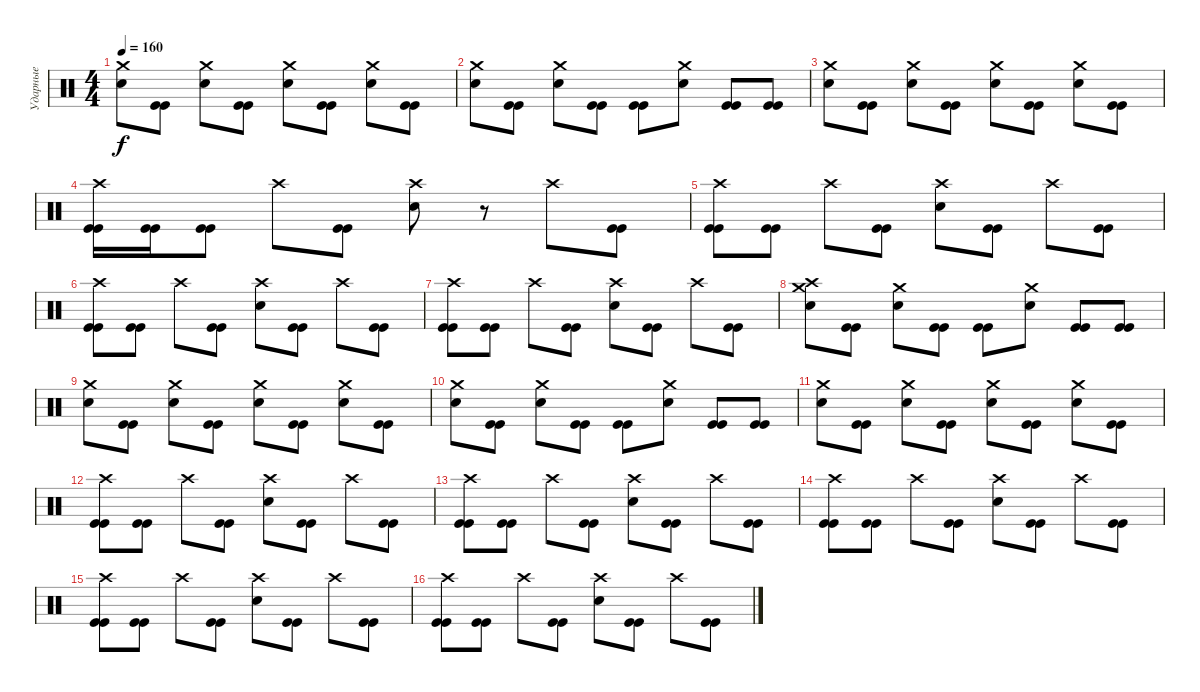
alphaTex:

\track ("Ударные" "Ударные") {instrument percussion}
\staff {score}
\articulation defaults
\ts (4 4)
\tempo 160
\clef neutral
\ks c
("Crash medium (hit)" "Electric Snare (hit)").8{dy f} ("Kick (hit)" "Kick (hit)").8 ("Crash medium (hit)" "Electric Snare (hit)").8 ("Kick (hit)" "Kick (hit)").8 ("Crash medium (hit)" "Electric Snare (hit)").8 ("Kick (hit)" "Kick (hit)").8 ("Crash medium (hit)" "Electric Snare (hit)").8 ("Kick (hit)" "Kick (hit)").8 |
("Crash medium (hit)" "Electric Snare (hit)").8 ("Kick (hit)" "Kick (hit)").8 ("Crash medium (hit)" "Electric Snare (hit)").8 ("Kick (hit)" "Kick (hit)").8 ("Kick (hit)" "Kick (hit)").8 ("Crash medium (hit)" "Electric Snare (hit)").8 ("Kick (hit)" "Kick (hit)").8 ("Kick (hit)" "Kick (hit)").8 |
("Crash medium (hit)" "Electric Snare (hit)").8 ("Kick (hit)" "Kick (hit)").8 ("Crash medium (hit)" "Electric Snare (hit)").8 ("Kick (hit)" "Kick (hit)").8 ("Crash medium (hit)" "Electric Snare (hit)").8 ("Kick (hit)" "Kick (hit)").8 ("Crash medium (hit)" "Electric Snare (hit)").8 ("Kick (hit)" "Kick (hit)").8 |
("Crash high (hit)" "Kick (hit)" "Kick (hit)").16 ("Kick (hit)" "Kick (hit)").16 ("Kick (hit)" "Kick (hit)").8 "Crash high (hit)".8 ("Kick (hit)" "Kick (hit)").8 ("Crash high (hit)" "Electric Snare (hit)").8 r.8 "Crash high (hit)".8 ("Kick (hit)" "Kick (hit)").8 |
("Crash high (hit)" "Kick (hit)" "Kick (hit)").8 ("Kick (hit)" "Kick (hit)").8 "Crash high (hit)".8 ("Kick (hit)" "Kick (hit)").8 ("Crash high (hit)" "Electric Snare (hit)").8 ("Kick (hit)" "Kick (hit)").8 "Crash high (hit)".8 ("Kick (hit)" "Kick (hit)").8 |
("Crash high (hit)" "Kick (hit)" "Kick (hit)").8 ("Kick (hit)" "Kick (hit)").8 "Crash high (hit)".8 ("Kick (hit)" "Kick (hit)").8 ("Crash high (hit)" "Electric Snare (hit)").8 ("Kick (hit)" "Kick (hit)").8 "Crash high (hit)".8 ("Kick (hit)" "Kick (hit)").8 |
("Crash high (hit)" "Kick (hit)" "Kick (hit)").8 ("Kick (hit)" "Kick (hit)").8 "Crash high (hit)".8 ("Kick (hit)" "Kick (hit)").8 ("Crash high (hit)" "Electric Snare (hit)").8 ("Kick (hit)" "Kick (hit)").8 "Crash high (hit)".8 ("Kick (hit)" "Kick (hit)").8 |
("Crash high (hit)" "Crash medium (hit)" "Electric Snare (hit)").8 ("Kick (hit)" "Kick (hit)").8 ("Crash medium (hit)" "Electric Snare (hit)").8 ("Kick (hit)" "Kick (hit)").8 ("Kick (hit)" "Kick (hit)").8 ("Crash medium (hit)" "Electric Snare (hit)").8 ("Kick (hit)" "Kick (hit)").8 ("Kick (hit)" "Kick (hit)").8 |
("Crash medium (hit)" "Electric Snare (hit)").8 ("Kick (hit)" "Kick (hit)").8 ("Crash medium (hit)" "Electric Snare (hit)").8 ("Kick (hit)" "Kick (hit)").8 ("Crash medium (hit)" "Electric Snare (hit)").8 ("Kick (hit)" "Kick (hit)").8 ("Crash medium (hit)" "Electric Snare (hit)").8 ("Kick (hit)" "Kick (hit)").8 |
("Crash medium (hit)" "Electric Snare (hit)").8 ("Kick (hit)" "Kick (hit)").8 ("Crash medium (hit)" "Electric Snare (hit)").8 ("Kick (hit)" "Kick (hit)").8 ("Kick (hit)" "Kick (hit)").8 ("Crash medium (hit)" "Electric Snare (hit)").8 ("Kick (hit)" "Kick (hit)").8 ("Kick (hit)" "Kick (hit)").8 |
("Crash medium (hit)" "Electric Snare (hit)").8 ("Kick (hit)" "Kick (hit)").8 ("Crash medium (hit)" "Electric Snare (hit)").8 ("Kick (hit)" "Kick (hit)").8 ("Crash medium (hit)" "Electric Snare (hit)").8 ("Kick (hit)" "Kick (hit)").8 ("Crash medium (hit)" "Electric Snare (hit)").8 ("Kick (hit)" "Kick (hit)").8 |
("Crash high (hit)" "Kick (hit)" "Kick (hit)").8 ("Kick (hit)" "Kick (hit)").8 "Crash high (hit)".8 ("Kick (hit)" "Kick (hit)").8 ("Crash high (hit)" "Electric Snare (hit)").8 ("Kick (hit)" "Kick (hit)").8 "Crash high (hit)".8 ("Kick (hit)" "Kick (hit)").8 |
("Crash high (hit)" "Kick (hit)" "Kick (hit)").8 ("Kick (hit)" "Kick (hit)").8 "Crash high (hit)".8 ("Kick (hit)" "Kick (hit)").8 ("Crash high (hit)" "Electric Snare (hit)").8 ("Kick (hit)" "Kick (hit)").8 "Crash high (hit)".8 ("Kick (hit)" "Kick (hit)").8 |
("Crash high (hit)" "Kick (hit)" "Kick (hit)").8 ("Kick (hit)" "Kick (hit)").8 "Crash high (hit)".8 ("Kick (hit)" "Kick (hit)").8 ("Crash high (hit)" "Electric Snare (hit)").8 ("Kick (hit)" "Kick (hit)").8 "Crash high (hit)".8 ("Kick (hit)" "Kick (hit)").8 |
("Crash high (hit)" "Kick (hit)" "Kick (hit)").8 ("Kick (hit)" "Kick (hit)").8 "Crash high (hit)".8 ("Kick (hit)" "Kick (hit)").8 ("Crash high (hit)" "Electric Snare (hit)").8 ("Kick (hit)" "Kick (hit)").8 "Crash high (hit)".8 ("Kick (hit)" "Kick (hit)").8 |
("Crash high (hit)" "Kick (hit)" "Kick (hit)").8 ("Kick (hit)" "Kick (hit)").8 "Crash high (hit)".8 ("Kick (hit)" "Kick (hit)").8 ("Crash high (hit)" "Electric Snare (hit)").8 ("Kick (hit)" "Kick (hit)").8 "Crash high (hit)".8 ("Kick (hit)" "Kick (hit)").8
